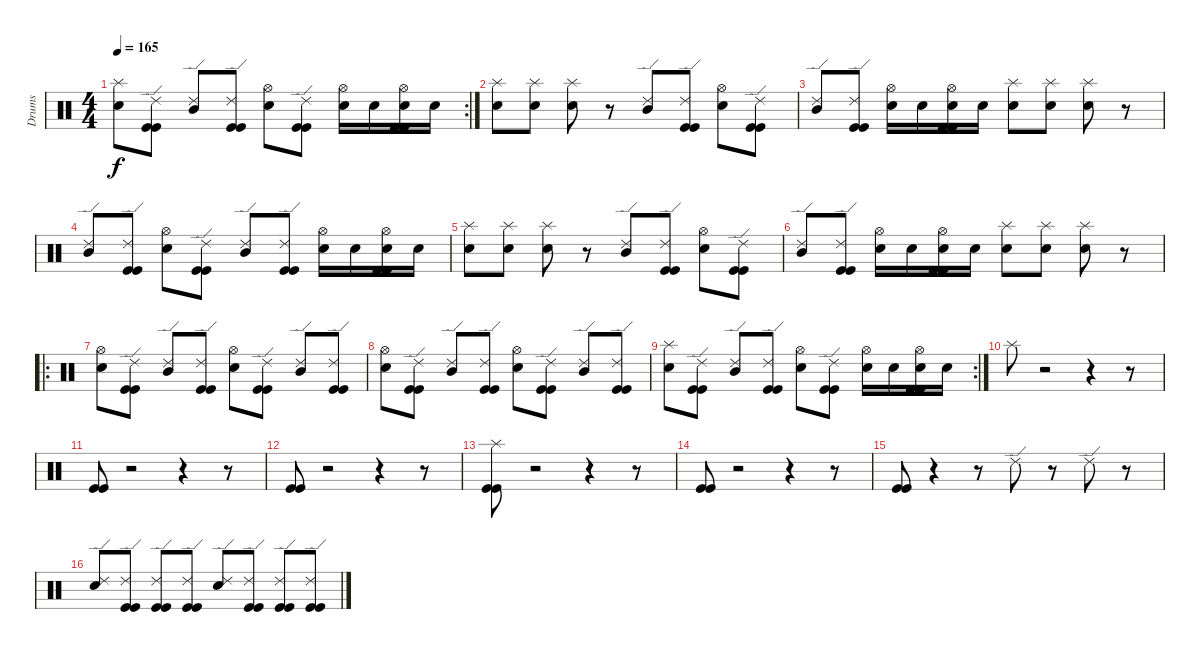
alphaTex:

\track ("Drums" "Drums") {instrument percussion}
\staff {score}
\articulation defaults
\rc 2
\ts (4 4)
\tempo 165
\clef neutral
\ks c
("Splash (hit)" "Snare (hit) 2").8{dy f} ("Ride (edge) 2" "Kick (hit)" "Kick (hit)").8 ("Ride (edge) 2" "Mid Tom (hit)").8 ("Ride (edge) 2" "Kick (hit)" "Kick (hit)").8 ("Hi-Hat (open)" "Snare (hit) 2").8 ("Ride (edge) 2" "Kick (hit)" "Kick (hit)").8 ("Hi-Hat (open)" "Snare (hit) 2").16 "Snare (hit) 2".16 ("Hi-Hat (open)" "Snare (hit) 2" "Kick (hit)" "Kick (hit)").16 "Snare (hit) 2".16 |
("Splash (hit)" "Snare (hit) 2").8 ("Splash (hit)" "Snare (hit) 2").8 ("Splash (hit)" "Snare (hit) 2").8 r.8 ("Ride (edge) 2" "Mid Tom (hit)").8 ("Ride (edge) 2" "Kick (hit)" "Kick (hit)").8 ("Hi-Hat (open)" "Snare (hit) 2").8 ("Ride (edge) 2" "Kick (hit)" "Kick (hit)").8 |
("Ride (edge) 2" "Mid Tom (hit)").8 ("Ride (edge) 2" "Kick (hit)" "Kick (hit)").8 ("Hi-Hat (open)" "Snare (hit) 2").16 "Snare (hit) 2".16 ("Hi-Hat (open)" "Snare (hit) 2" "Kick (hit)" "Kick (hit)").16 "Snare (hit) 2".16 ("Splash (hit)" "Snare (hit) 2").8 ("Splash (hit)" "Snare (hit) 2").8 ("Splash (hit)" "Snare (hit) 2").8 r.8 |
("Ride (edge) 2" "Mid Tom (hit)").8 ("Ride (edge) 2" "Kick (hit)" "Kick (hit)").8 ("Hi-Hat (open)" "Snare (hit) 2").8 ("Ride (edge) 2" "Kick (hit)" "Kick (hit)").8 ("Ride (edge) 2" "Mid Tom (hit)").8 ("Ride (edge) 2" "Kick (hit)" "Kick (hit)").8 ("Hi-Hat (open)" "Snare (hit) 2").16 "Snare (hit) 2".16 ("Hi-Hat (open)" "Snare (hit) 2" "Kick (hit)" "Kick (hit)").16 "Snare (hit) 2".16 |
("Splash (hit)" "Snare (hit) 2").8 ("Splash (hit)" "Snare (hit) 2").8 ("Splash (hit)" "Snare (hit) 2").8 r.8 ("Ride (edge) 2" "Mid Tom (hit)").8 ("Ride (edge) 2" "Kick (hit)" "Kick (hit)").8 ("Hi-Hat (open)" "Snare (hit) 2").8 ("Ride (edge) 2" "Kick (hit)" "Kick (hit)").8 |
("Ride (edge) 2" "Mid Tom (hit)").8 ("Ride (edge) 2" "Kick (hit)" "Kick (hit)").8 ("Hi-Hat (open)" "Snare (hit) 2").16 "Snare (hit) 2".16 ("Hi-Hat (open)" "Snare (hit) 2" "Kick (hit)" "Kick (hit)").16 "Snare (hit) 2".16 ("Splash (hit)" "Snare (hit) 2").8 ("Splash (hit)" "Snare (hit) 2").8 ("Splash (hit)" "Snare (hit) 2").8 r.8 |
\ro
("Hi-Hat (open)" "Snare (hit) 2").8 ("Ride (edge) 2" "Kick (hit)" "Kick (hit)").8 ("Ride (edge) 2" "Mid Tom (hit)").8 ("Ride (edge) 2" "Kick (hit)" "Kick (hit)").8 ("Hi-Hat (open)" "Snare (hit) 2").8 ("Ride (edge) 2" "Kick (hit)" "Kick (hit)").8 ("Ride (edge) 2" "Mid Tom (hit)").8 ("Ride (edge) 2" "Kick (hit)" "Kick (hit)").8 |
("Hi-Hat (open)" "Snare (hit) 2").8 ("Ride (edge) 2" "Kick (hit)" "Kick (hit)").8 ("Ride (edge) 2" "Mid Tom (hit)").8 ("Ride (edge) 2" "Kick (hit)" "Kick (hit)").8 ("Hi-Hat (open)" "Snare (hit) 2").8 ("Ride (edge) 2" "Kick (hit)" "Kick (hit)").8 ("Ride (edge) 2" "Mid Tom (hit)").8 ("Ride (edge) 2" "Kick (hit)" "Kick (hit)").8 |
\rc 2
("Splash (hit)" "Snare (hit) 2").8 ("Ride (edge) 2" "Kick (hit)" "Kick (hit)").8 ("Ride (edge) 2" "Mid Tom (hit)").8 ("Ride (edge) 2" "Kick (hit)" "Kick (hit)").8 ("Hi-Hat (open)" "Snare (hit) 2").8 ("Ride (edge) 2" "Kick (hit)" "Kick (hit)").8 ("Hi-Hat (open)" "Snare (hit) 2").16 "Snare (hit) 2".16 ("Hi-Hat (open)" "Snare (hit) 2" "Kick (hit)" "Kick (hit)").16 "Snare (hit) 2".16 |
"Splash (hit)".8 r.2 r.4 r.8 |
("Kick (hit)" "Kick (hit)").8 r.2 r.4 r.8 |
("Kick (hit)" "Kick (hit)").8 r.2 r.4 r.8 |
("Splash (hit)" "Kick (hit)" "Kick (hit)").8 r.2 r.4 r.8 |
("Kick (hit)" "Kick (hit)").8 r.2 r.4 r.8 |
("Kick (hit)" "Kick (hit)").8 r.4 r.8 "Ride (edge) 2".8 r.8 "Ride (edge) 2".8 r.8 |
("Ride (edge) 2" "Snare (hit) 2").8 ("Ride (edge) 2" "Kick (hit)" "Kick (hit)").8 ("Ride (edge) 2" "Kick (hit)" "Kick (hit)").8 ("Ride (edge) 2" "Kick (hit)" "Kick (hit)").8 ("Ride (edge) 2" "Snare (hit) 2").8 ("Ride (edge) 2" "Kick (hit)" "Kick (hit)").8 ("Ride (edge) 2" "Kick (hit)" "Kick (hit)").8 ("Ride (edge) 2" "Kick (hit)" "Kick (hit)").8
